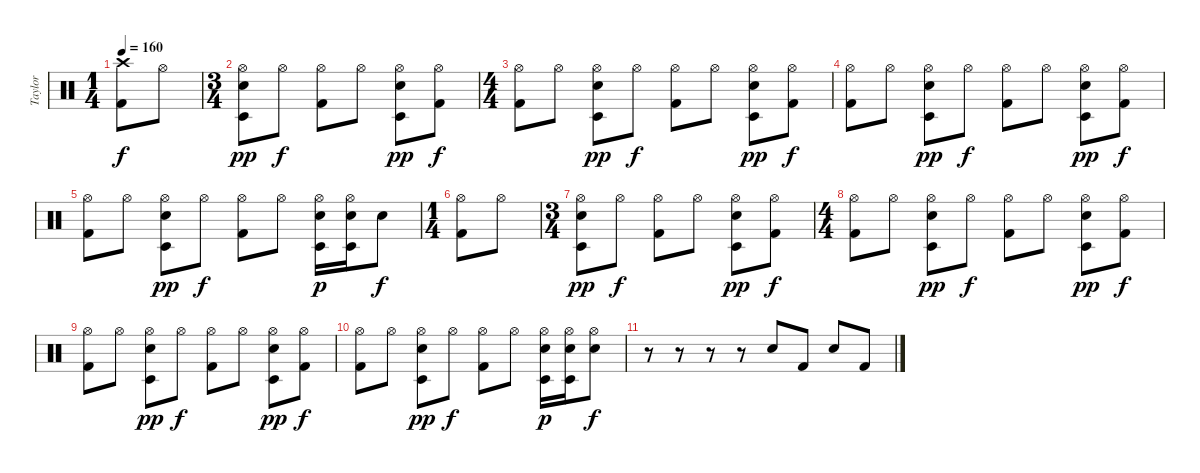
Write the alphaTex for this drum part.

\track ("Taylor" "Taylor") {instrument percussion}
\staff {score}
\articulation defaults
\ts (1 4)
\tempo 160
\clef neutral
\ks c
("Crash high (hit)" "Kick (hit) 2").8{dy f} "Hi-Hat (open)".8 |
\ts (3 4)
("Hi-Hat (open)" "Timbale low (hit)" "Electric Snare (hit)").8{dy pp} "Hi-Hat (open)".8{dy f} ("Hi-Hat (open)" "Kick (hit) 2").8 "Hi-Hat (open)".8 ("Hi-Hat (open)" "Timbale low (hit)" "Electric Snare (hit)").8{dy pp} ("Hi-Hat (open)" "Kick (hit) 2").8{dy f} |
\ts (4 4)
("Hi-Hat (open)" "Kick (hit) 2").8 "Hi-Hat (open)".8 ("Hi-Hat (open)" "Timbale low (hit)" "Electric Snare (hit)").8{dy pp} "Hi-Hat (open)".8{dy f} ("Hi-Hat (open)" "Kick (hit) 2").8 "Hi-Hat (open)".8 ("Hi-Hat (open)" "Timbale low (hit)" "Electric Snare (hit)").8{dy pp} ("Hi-Hat (open)" "Kick (hit) 2").8{dy f} |
("Hi-Hat (open)" "Kick (hit) 2").8 "Hi-Hat (open)".8 ("Hi-Hat (open)" "Timbale low (hit)" "Electric Snare (hit)").8{dy pp} "Hi-Hat (open)".8{dy f} ("Hi-Hat (open)" "Kick (hit) 2").8 "Hi-Hat (open)".8 ("Hi-Hat (open)" "Timbale low (hit)" "Electric Snare (hit)").8{dy pp} ("Hi-Hat (open)" "Kick (hit) 2").8{dy f} |
("Hi-Hat (open)" "Kick (hit) 2").8 "Hi-Hat (open)".8 ("Hi-Hat (open)" "Timbale low (hit)" "Electric Snare (hit)").8{dy pp} "Hi-Hat (open)".8{dy f} ("Hi-Hat (open)" "Kick (hit) 2").8 "Hi-Hat (open)".8 ("Hi-Hat (open)" "Timbale low (hit)" "Electric Snare (hit)").16{dy p} ("Hi-Hat (open)" "Timbale low (hit)" "Electric Snare (hit)").16 "Electric Snare (hit)".8{dy f} |
\ts (1 4)
("Hi-Hat (open)" "Kick (hit) 2").8 "Hi-Hat (open)".8 |
\ts (3 4)
("Hi-Hat (open)" "Timbale low (hit)" "Electric Snare (hit)").8{dy pp} "Hi-Hat (open)".8{dy f} ("Hi-Hat (open)" "Kick (hit) 2").8 "Hi-Hat (open)".8 ("Hi-Hat (open)" "Timbale low (hit)" "Electric Snare (hit)").8{dy pp} ("Hi-Hat (open)" "Kick (hit) 2").8{dy f} |
\ts (4 4)
("Hi-Hat (open)" "Kick (hit) 2").8 "Hi-Hat (open)".8 ("Hi-Hat (open)" "Timbale low (hit)" "Electric Snare (hit)").8{dy pp} "Hi-Hat (open)".8{dy f} ("Hi-Hat (open)" "Kick (hit) 2").8 "Hi-Hat (open)".8 ("Hi-Hat (open)" "Timbale low (hit)" "Electric Snare (hit)").8{dy pp} ("Hi-Hat (open)" "Kick (hit) 2").8{dy f} |
("Hi-Hat (open)" "Kick (hit) 2").8 "Hi-Hat (open)".8 ("Hi-Hat (open)" "Timbale low (hit)" "Electric Snare (hit)").8{dy pp} "Hi-Hat (open)".8{dy f} ("Hi-Hat (open)" "Kick (hit) 2").8 "Hi-Hat (open)".8 ("Hi-Hat (open)" "Timbale low (hit)" "Electric Snare (hit)").8{dy pp} ("Hi-Hat (open)" "Kick (hit) 2").8{dy f} |
("Hi-Hat (open)" "Kick (hit) 2").8 "Hi-Hat (open)".8 ("Hi-Hat (open)" "Timbale low (hit)" "Electric Snare (hit)").8{dy pp} "Hi-Hat (open)".8{dy f} ("Hi-Hat (open)" "Kick (hit) 2").8 "Hi-Hat (open)".8 ("Hi-Hat (open)" "Timbale low (hit)" "Electric Snare (hit)").16{dy p} ("Hi-Hat (open)" "Timbale low (hit)" "Electric Snare (hit)").16 ("Hi-Hat (open)" "Electric Snare (hit)").8{dy f} |
r.8 r.8 r.8 r.8 "Electric Snare (hit)".8 "Kick (hit) 2".8 "Electric Snare (hit)".8 "Kick (hit) 2".8
